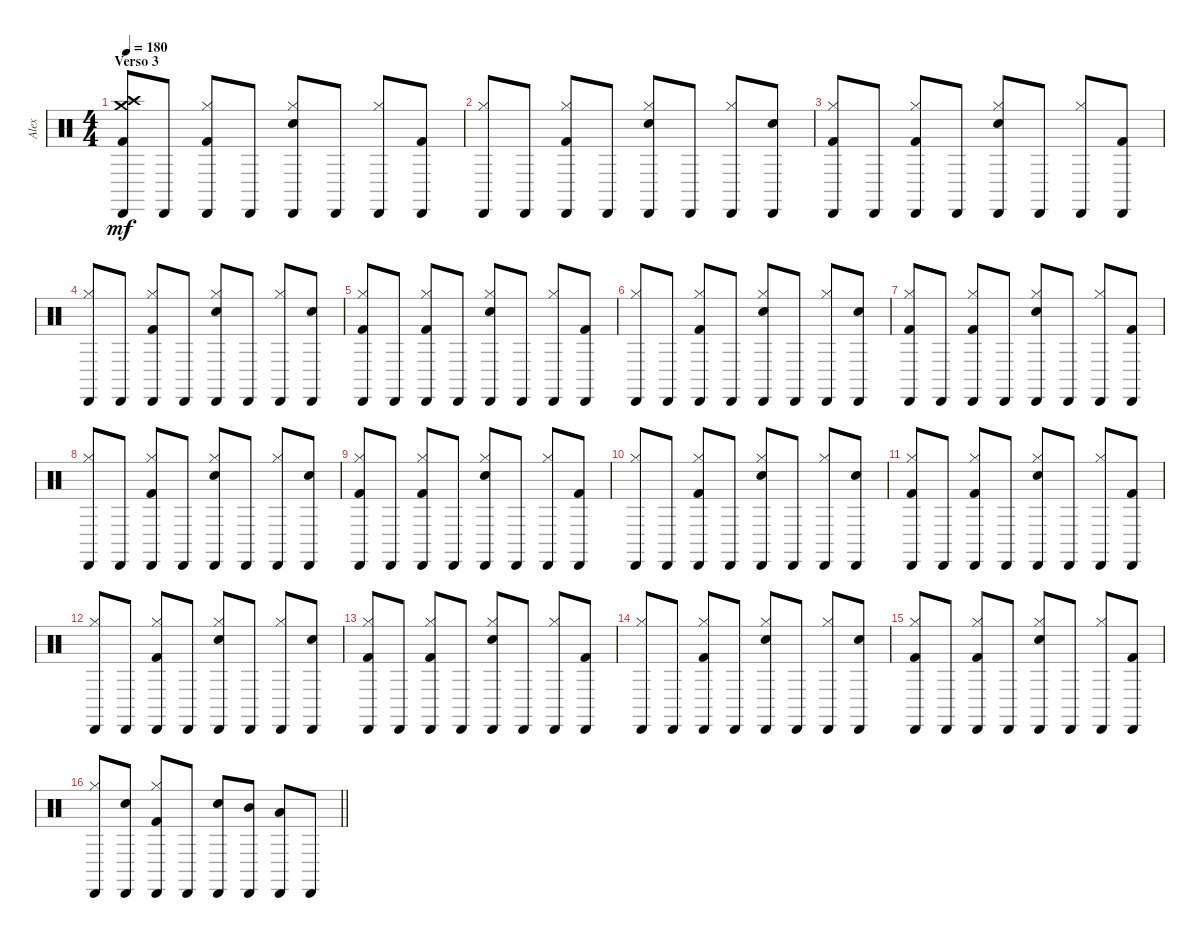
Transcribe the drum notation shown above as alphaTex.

\track ("Alex" "Alex") {instrument percussion}
\staff {score}
\articulation defaults
\ts (4 4)
\section ("" "Verso 3")
\tempo 180
\clef neutral
\ks c
("Crash medium (hit)" "Crash high (hit)" "Kick (hit) 2" "Cabasa (hit)").8{dy mf} "Cabasa (hit)".8 ("Hi-Hat (closed)" "Kick (hit) 2" "Cabasa (hit)").8 "Cabasa (hit)".8 ("Hi-Hat (closed)" "Snare (hit) 2" "Cabasa (hit)").8 "Cabasa (hit)".8 ("Hi-Hat (closed)" "Cabasa (hit)").8 ("Kick (hit) 2" "Cabasa (hit)").8 |
("Hi-Hat (closed)" "Cabasa (hit)").8 "Cabasa (hit)".8 ("Hi-Hat (closed)" "Kick (hit) 2" "Cabasa (hit)").8 "Cabasa (hit)".8 ("Hi-Hat (closed)" "Snare (hit) 2" "Cabasa (hit)").8 "Cabasa (hit)".8 ("Hi-Hat (closed)" "Cabasa (hit)").8 ("Snare (hit) 2" "Cabasa (hit)").8 |
("Hi-Hat (closed)" "Kick (hit) 2" "Cabasa (hit)").8 "Cabasa (hit)".8 ("Hi-Hat (closed)" "Kick (hit) 2" "Cabasa (hit)").8 "Cabasa (hit)".8 ("Hi-Hat (closed)" "Snare (hit) 2" "Cabasa (hit)").8 "Cabasa (hit)".8 ("Hi-Hat (closed)" "Cabasa (hit)").8 ("Kick (hit) 2" "Cabasa (hit)").8 |
("Hi-Hat (closed)" "Cabasa (hit)").8 "Cabasa (hit)".8 ("Hi-Hat (closed)" "Kick (hit) 2" "Cabasa (hit)").8 "Cabasa (hit)".8 ("Hi-Hat (closed)" "Snare (hit) 2" "Cabasa (hit)").8 "Cabasa (hit)".8 ("Hi-Hat (closed)" "Cabasa (hit)").8 ("Snare (hit) 2" "Cabasa (hit)").8 |
("Hi-Hat (closed)" "Kick (hit) 2" "Cabasa (hit)").8 "Cabasa (hit)".8 ("Hi-Hat (closed)" "Kick (hit) 2" "Cabasa (hit)").8 "Cabasa (hit)".8 ("Hi-Hat (closed)" "Snare (hit) 2" "Cabasa (hit)").8 "Cabasa (hit)".8 ("Hi-Hat (closed)" "Cabasa (hit)").8 ("Kick (hit) 2" "Cabasa (hit)").8 |
("Hi-Hat (closed)" "Cabasa (hit)").8 "Cabasa (hit)".8 ("Hi-Hat (closed)" "Kick (hit) 2" "Cabasa (hit)").8 "Cabasa (hit)".8 ("Hi-Hat (closed)" "Snare (hit) 2" "Cabasa (hit)").8 "Cabasa (hit)".8 ("Hi-Hat (closed)" "Cabasa (hit)").8 ("Snare (hit) 2" "Cabasa (hit)").8 |
("Hi-Hat (closed)" "Kick (hit) 2" "Cabasa (hit)").8 "Cabasa (hit)".8 ("Hi-Hat (closed)" "Kick (hit) 2" "Cabasa (hit)").8 "Cabasa (hit)".8 ("Hi-Hat (closed)" "Snare (hit) 2" "Cabasa (hit)").8 "Cabasa (hit)".8 ("Hi-Hat (closed)" "Cabasa (hit)").8 ("Kick (hit) 2" "Cabasa (hit)").8 |
("Hi-Hat (closed)" "Cabasa (hit)").8 "Cabasa (hit)".8 ("Hi-Hat (closed)" "Kick (hit) 2" "Cabasa (hit)").8 "Cabasa (hit)".8 ("Hi-Hat (closed)" "Snare (hit) 2" "Cabasa (hit)").8 "Cabasa (hit)".8 ("Hi-Hat (closed)" "Cabasa (hit)").8 ("Snare (hit) 2" "Cabasa (hit)").8 |
("Hi-Hat (closed)" "Kick (hit) 2" "Cabasa (hit)").8 "Cabasa (hit)".8 ("Hi-Hat (closed)" "Kick (hit) 2" "Cabasa (hit)").8 "Cabasa (hit)".8 ("Hi-Hat (closed)" "Snare (hit) 2" "Cabasa (hit)").8 "Cabasa (hit)".8 ("Hi-Hat (closed)" "Cabasa (hit)").8 ("Kick (hit) 2" "Cabasa (hit)").8 |
("Hi-Hat (closed)" "Cabasa (hit)").8 "Cabasa (hit)".8 ("Hi-Hat (closed)" "Kick (hit) 2" "Cabasa (hit)").8 "Cabasa (hit)".8 ("Hi-Hat (closed)" "Snare (hit) 2" "Cabasa (hit)").8 "Cabasa (hit)".8 ("Hi-Hat (closed)" "Cabasa (hit)").8 ("Snare (hit) 2" "Cabasa (hit)").8 |
("Hi-Hat (closed)" "Kick (hit) 2" "Cabasa (hit)").8 "Cabasa (hit)".8 ("Hi-Hat (closed)" "Kick (hit) 2" "Cabasa (hit)").8 "Cabasa (hit)".8 ("Hi-Hat (closed)" "Snare (hit) 2" "Cabasa (hit)").8 "Cabasa (hit)".8 ("Hi-Hat (closed)" "Cabasa (hit)").8 ("Kick (hit) 2" "Cabasa (hit)").8 |
("Hi-Hat (closed)" "Cabasa (hit)").8 "Cabasa (hit)".8 ("Hi-Hat (closed)" "Kick (hit) 2" "Cabasa (hit)").8 "Cabasa (hit)".8 ("Hi-Hat (closed)" "Snare (hit) 2" "Cabasa (hit)").8 "Cabasa (hit)".8 ("Hi-Hat (closed)" "Cabasa (hit)").8 ("Snare (hit) 2" "Cabasa (hit)").8 |
("Hi-Hat (closed)" "Kick (hit) 2" "Cabasa (hit)").8 "Cabasa (hit)".8 ("Hi-Hat (closed)" "Kick (hit) 2" "Cabasa (hit)").8 "Cabasa (hit)".8 ("Hi-Hat (closed)" "Snare (hit) 2" "Cabasa (hit)").8 "Cabasa (hit)".8 ("Hi-Hat (closed)" "Cabasa (hit)").8 ("Kick (hit) 2" "Cabasa (hit)").8 |
("Hi-Hat (closed)" "Cabasa (hit)").8 "Cabasa (hit)".8 ("Hi-Hat (closed)" "Kick (hit) 2" "Cabasa (hit)").8 "Cabasa (hit)".8 ("Hi-Hat (closed)" "Snare (hit) 2" "Cabasa (hit)").8 "Cabasa (hit)".8 ("Hi-Hat (closed)" "Cabasa (hit)").8 ("Snare (hit) 2" "Cabasa (hit)").8 |
("Hi-Hat (closed)" "Kick (hit) 2" "Cabasa (hit)").8 "Cabasa (hit)".8 ("Hi-Hat (closed)" "Kick (hit) 2" "Cabasa (hit)").8 "Cabasa (hit)".8 ("Hi-Hat (closed)" "Snare (hit) 2" "Cabasa (hit)").8 "Cabasa (hit)".8 ("Hi-Hat (closed)" "Cabasa (hit)").8 ("Kick (hit) 2" "Cabasa (hit)").8 |
\barLineRight lightlight
("Hi-Hat (closed)" "Cabasa (hit)").8 ("Snare (hit) 2" "Cabasa (hit)").8 ("Hi-Hat (closed)" "Kick (hit) 2" "Cabasa (hit)").8 "Cabasa (hit)".8 ("Snare (hit) 2" "Cabasa (hit)").8 ("Mid Tom (hit)" "Cabasa (hit)").8 ("Low Tom (hit)" "Cabasa (hit)").8 "Cabasa (hit)".8
